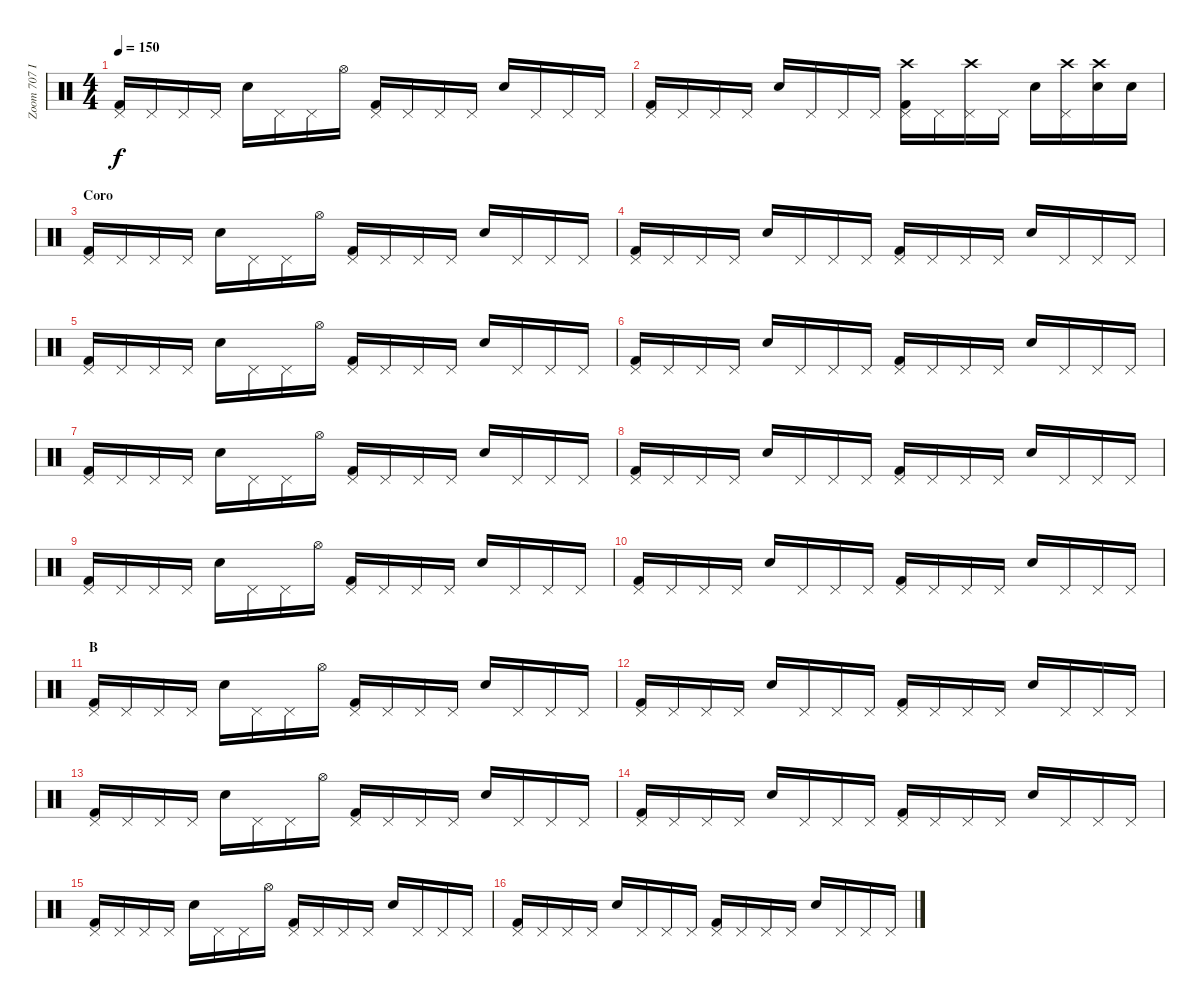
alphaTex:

\track ("Zoom 707 II" "Zoom 707 I") {instrument percussion}
\staff {score}
\articulation defaults
\ts (4 4)
\tempo 150
\clef neutral
\ks c
("Pedal Hi-Hat (hit)" "Kick (hit) 2").16{dy f} "Pedal Hi-Hat (hit)".16 "Pedal Hi-Hat (hit)".16 "Pedal Hi-Hat (hit)".16 "Snare (hit) 2".16 "Pedal Hi-Hat (hit)".16 "Pedal Hi-Hat (hit)".16 "Hi-Hat (open)".16 ("Pedal Hi-Hat (hit)" "Kick (hit) 2").16 "Pedal Hi-Hat (hit)".16 "Pedal Hi-Hat (hit)".16 "Pedal Hi-Hat (hit)".16 "Snare (hit) 2".16 "Pedal Hi-Hat (hit)".16 "Pedal Hi-Hat (hit)".16 "Pedal Hi-Hat (hit)".16 |
("Pedal Hi-Hat (hit)" "Kick (hit) 2").16 "Pedal Hi-Hat (hit)".16 "Pedal Hi-Hat (hit)".16 "Pedal Hi-Hat (hit)".16 "Snare (hit) 2".16 "Pedal Hi-Hat (hit)".16 "Pedal Hi-Hat (hit)".16 "Pedal Hi-Hat (hit)".16 ("Crash high (hit)" "Pedal Hi-Hat (hit)" "Kick (hit) 2").16 "Pedal Hi-Hat (hit)".16 ("Crash high (hit)" "Pedal Hi-Hat (hit)").16 "Pedal Hi-Hat (hit)".16 "Snare (hit) 2".16 ("Crash high (hit)" "Pedal Hi-Hat (hit)").16 ("Crash high (hit)" "Snare (hit) 2").16 "Snare (hit) 2".16 |
\section ("" "Coro")
("Pedal Hi-Hat (hit)" "Kick (hit) 2").16 "Pedal Hi-Hat (hit)".16 "Pedal Hi-Hat (hit)".16 "Pedal Hi-Hat (hit)".16 "Snare (hit) 2".16 "Pedal Hi-Hat (hit)".16 "Pedal Hi-Hat (hit)".16 "Hi-Hat (open)".16 ("Pedal Hi-Hat (hit)" "Kick (hit) 2").16 "Pedal Hi-Hat (hit)".16 "Pedal Hi-Hat (hit)".16 "Pedal Hi-Hat (hit)".16 "Snare (hit) 2".16 "Pedal Hi-Hat (hit)".16 "Pedal Hi-Hat (hit)".16 "Pedal Hi-Hat (hit)".16 |
("Pedal Hi-Hat (hit)" "Kick (hit) 2").16 "Pedal Hi-Hat (hit)".16 "Pedal Hi-Hat (hit)".16 "Pedal Hi-Hat (hit)".16 "Snare (hit) 2".16 "Pedal Hi-Hat (hit)".16 "Pedal Hi-Hat (hit)".16 "Pedal Hi-Hat (hit)".16 ("Pedal Hi-Hat (hit)" "Kick (hit) 2").16 "Pedal Hi-Hat (hit)".16 "Pedal Hi-Hat (hit)".16 "Pedal Hi-Hat (hit)".16 "Snare (hit) 2".16 "Pedal Hi-Hat (hit)".16 "Pedal Hi-Hat (hit)".16 "Pedal Hi-Hat (hit)".16 |
("Pedal Hi-Hat (hit)" "Kick (hit) 2").16 "Pedal Hi-Hat (hit)".16 "Pedal Hi-Hat (hit)".16 "Pedal Hi-Hat (hit)".16 "Snare (hit) 2".16 "Pedal Hi-Hat (hit)".16 "Pedal Hi-Hat (hit)".16 "Hi-Hat (open)".16 ("Pedal Hi-Hat (hit)" "Kick (hit) 2").16 "Pedal Hi-Hat (hit)".16 "Pedal Hi-Hat (hit)".16 "Pedal Hi-Hat (hit)".16 "Snare (hit) 2".16 "Pedal Hi-Hat (hit)".16 "Pedal Hi-Hat (hit)".16 "Pedal Hi-Hat (hit)".16 |
("Pedal Hi-Hat (hit)" "Kick (hit) 2").16 "Pedal Hi-Hat (hit)".16 "Pedal Hi-Hat (hit)".16 "Pedal Hi-Hat (hit)".16 "Snare (hit) 2".16 "Pedal Hi-Hat (hit)".16 "Pedal Hi-Hat (hit)".16 "Pedal Hi-Hat (hit)".16 ("Pedal Hi-Hat (hit)" "Kick (hit) 2").16 "Pedal Hi-Hat (hit)".16 "Pedal Hi-Hat (hit)".16 "Pedal Hi-Hat (hit)".16 "Snare (hit) 2".16 "Pedal Hi-Hat (hit)".16 "Pedal Hi-Hat (hit)".16 "Pedal Hi-Hat (hit)".16 |
("Pedal Hi-Hat (hit)" "Kick (hit) 2").16 "Pedal Hi-Hat (hit)".16 "Pedal Hi-Hat (hit)".16 "Pedal Hi-Hat (hit)".16 "Snare (hit) 2".16 "Pedal Hi-Hat (hit)".16 "Pedal Hi-Hat (hit)".16 "Hi-Hat (open)".16 ("Pedal Hi-Hat (hit)" "Kick (hit) 2").16 "Pedal Hi-Hat (hit)".16 "Pedal Hi-Hat (hit)".16 "Pedal Hi-Hat (hit)".16 "Snare (hit) 2".16 "Pedal Hi-Hat (hit)".16 "Pedal Hi-Hat (hit)".16 "Pedal Hi-Hat (hit)".16 |
("Pedal Hi-Hat (hit)" "Kick (hit) 2").16 "Pedal Hi-Hat (hit)".16 "Pedal Hi-Hat (hit)".16 "Pedal Hi-Hat (hit)".16 "Snare (hit) 2".16 "Pedal Hi-Hat (hit)".16 "Pedal Hi-Hat (hit)".16 "Pedal Hi-Hat (hit)".16 ("Pedal Hi-Hat (hit)" "Kick (hit) 2").16 "Pedal Hi-Hat (hit)".16 "Pedal Hi-Hat (hit)".16 "Pedal Hi-Hat (hit)".16 "Snare (hit) 2".16 "Pedal Hi-Hat (hit)".16 "Pedal Hi-Hat (hit)".16 "Pedal Hi-Hat (hit)".16 |
("Pedal Hi-Hat (hit)" "Kick (hit) 2").16 "Pedal Hi-Hat (hit)".16 "Pedal Hi-Hat (hit)".16 "Pedal Hi-Hat (hit)".16 "Snare (hit) 2".16 "Pedal Hi-Hat (hit)".16 "Pedal Hi-Hat (hit)".16 "Hi-Hat (open)".16 ("Pedal Hi-Hat (hit)" "Kick (hit) 2").16 "Pedal Hi-Hat (hit)".16 "Pedal Hi-Hat (hit)".16 "Pedal Hi-Hat (hit)".16 "Snare (hit) 2".16 "Pedal Hi-Hat (hit)".16 "Pedal Hi-Hat (hit)".16 "Pedal Hi-Hat (hit)".16 |
("Pedal Hi-Hat (hit)" "Kick (hit) 2").16 "Pedal Hi-Hat (hit)".16 "Pedal Hi-Hat (hit)".16 "Pedal Hi-Hat (hit)".16 "Snare (hit) 2".16 "Pedal Hi-Hat (hit)".16 "Pedal Hi-Hat (hit)".16 "Pedal Hi-Hat (hit)".16 ("Pedal Hi-Hat (hit)" "Kick (hit) 2").16 "Pedal Hi-Hat (hit)".16 "Pedal Hi-Hat (hit)".16 "Pedal Hi-Hat (hit)".16 "Snare (hit) 2".16 "Pedal Hi-Hat (hit)".16 "Pedal Hi-Hat (hit)".16 "Pedal Hi-Hat (hit)".16 |
\section ("" "B")
("Pedal Hi-Hat (hit)" "Kick (hit) 2").16 "Pedal Hi-Hat (hit)".16 "Pedal Hi-Hat (hit)".16 "Pedal Hi-Hat (hit)".16 "Snare (hit) 2".16 "Pedal Hi-Hat (hit)".16 "Pedal Hi-Hat (hit)".16 "Hi-Hat (open)".16 ("Pedal Hi-Hat (hit)" "Kick (hit) 2").16 "Pedal Hi-Hat (hit)".16 "Pedal Hi-Hat (hit)".16 "Pedal Hi-Hat (hit)".16 "Snare (hit) 2".16 "Pedal Hi-Hat (hit)".16 "Pedal Hi-Hat (hit)".16 "Pedal Hi-Hat (hit)".16 |
("Pedal Hi-Hat (hit)" "Kick (hit) 2").16 "Pedal Hi-Hat (hit)".16 "Pedal Hi-Hat (hit)".16 "Pedal Hi-Hat (hit)".16 "Snare (hit) 2".16 "Pedal Hi-Hat (hit)".16 "Pedal Hi-Hat (hit)".16 "Pedal Hi-Hat (hit)".16 ("Pedal Hi-Hat (hit)" "Kick (hit) 2").16 "Pedal Hi-Hat (hit)".16 "Pedal Hi-Hat (hit)".16 "Pedal Hi-Hat (hit)".16 "Snare (hit) 2".16 "Pedal Hi-Hat (hit)".16 "Pedal Hi-Hat (hit)".16 "Pedal Hi-Hat (hit)".16 |
("Pedal Hi-Hat (hit)" "Kick (hit) 2").16 "Pedal Hi-Hat (hit)".16 "Pedal Hi-Hat (hit)".16 "Pedal Hi-Hat (hit)".16 "Snare (hit) 2".16 "Pedal Hi-Hat (hit)".16 "Pedal Hi-Hat (hit)".16 "Hi-Hat (open)".16 ("Pedal Hi-Hat (hit)" "Kick (hit) 2").16 "Pedal Hi-Hat (hit)".16 "Pedal Hi-Hat (hit)".16 "Pedal Hi-Hat (hit)".16 "Snare (hit) 2".16 "Pedal Hi-Hat (hit)".16 "Pedal Hi-Hat (hit)".16 "Pedal Hi-Hat (hit)".16 |
("Pedal Hi-Hat (hit)" "Kick (hit) 2").16 "Pedal Hi-Hat (hit)".16 "Pedal Hi-Hat (hit)".16 "Pedal Hi-Hat (hit)".16 "Snare (hit) 2".16 "Pedal Hi-Hat (hit)".16 "Pedal Hi-Hat (hit)".16 "Pedal Hi-Hat (hit)".16 ("Pedal Hi-Hat (hit)" "Kick (hit) 2").16 "Pedal Hi-Hat (hit)".16 "Pedal Hi-Hat (hit)".16 "Pedal Hi-Hat (hit)".16 "Snare (hit) 2".16 "Pedal Hi-Hat (hit)".16 "Pedal Hi-Hat (hit)".16 "Pedal Hi-Hat (hit)".16 |
("Pedal Hi-Hat (hit)" "Kick (hit) 2").16 "Pedal Hi-Hat (hit)".16 "Pedal Hi-Hat (hit)".16 "Pedal Hi-Hat (hit)".16 "Snare (hit) 2".16 "Pedal Hi-Hat (hit)".16 "Pedal Hi-Hat (hit)".16 "Hi-Hat (open)".16 ("Pedal Hi-Hat (hit)" "Kick (hit) 2").16 "Pedal Hi-Hat (hit)".16 "Pedal Hi-Hat (hit)".16 "Pedal Hi-Hat (hit)".16 "Snare (hit) 2".16 "Pedal Hi-Hat (hit)".16 "Pedal Hi-Hat (hit)".16 "Pedal Hi-Hat (hit)".16 |
("Pedal Hi-Hat (hit)" "Kick (hit) 2").16 "Pedal Hi-Hat (hit)".16 "Pedal Hi-Hat (hit)".16 "Pedal Hi-Hat (hit)".16 "Snare (hit) 2".16 "Pedal Hi-Hat (hit)".16 "Pedal Hi-Hat (hit)".16 "Pedal Hi-Hat (hit)".16 ("Pedal Hi-Hat (hit)" "Kick (hit) 2").16 "Pedal Hi-Hat (hit)".16 "Pedal Hi-Hat (hit)".16 "Pedal Hi-Hat (hit)".16 "Snare (hit) 2".16 "Pedal Hi-Hat (hit)".16 "Pedal Hi-Hat (hit)".16 "Pedal Hi-Hat (hit)".16
